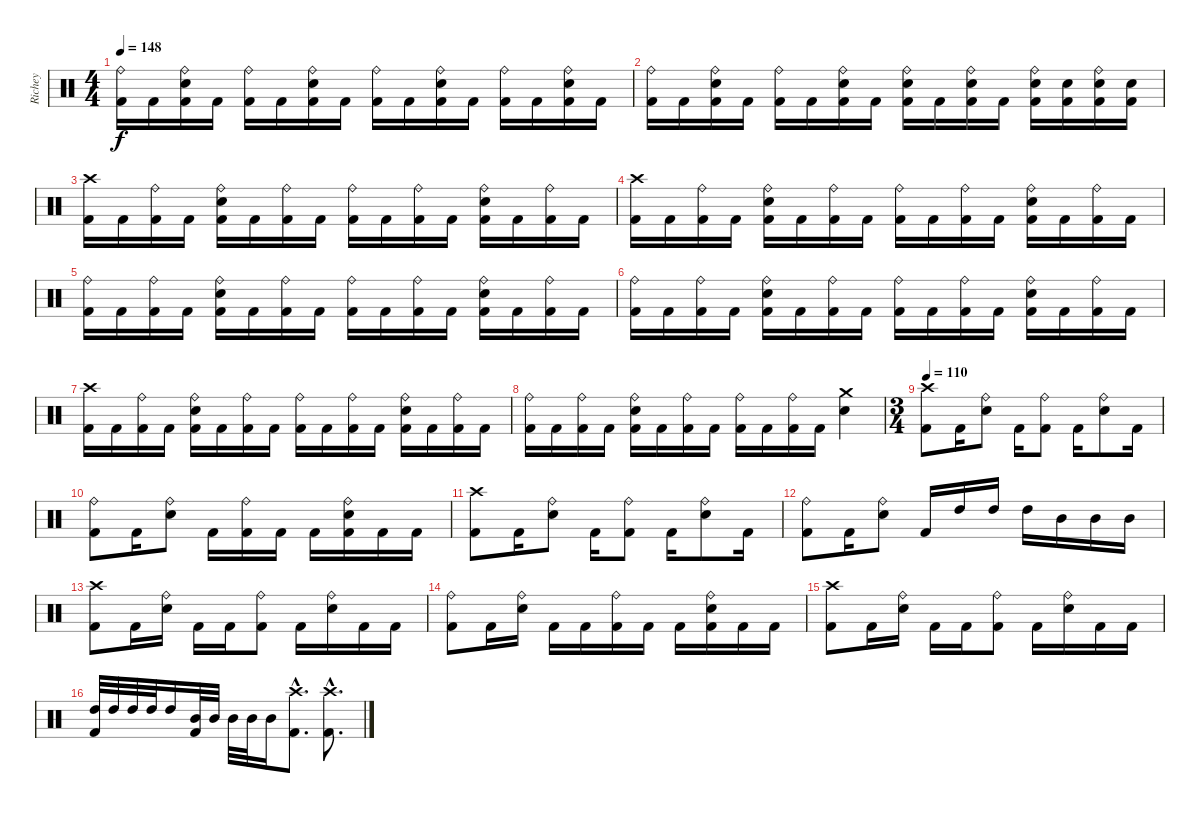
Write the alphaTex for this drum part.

\track ("Richey" "Richey") {instrument percussion}
\staff {score}
\articulation defaults
\ts (4 4)
\tempo 148
\clef neutral
\ks c
("Ride (bell)" "Kick (hit) 2").16{dy f} "Kick (hit) 2".16 ("Ride (bell)" "Snare (hit) 2" "Kick (hit) 2").16 "Kick (hit) 2".16 ("Ride (bell)" "Kick (hit) 2").16 "Kick (hit) 2".16 ("Ride (bell)" "Snare (hit) 2" "Kick (hit) 2").16 "Kick (hit) 2".16 ("Ride (bell)" "Kick (hit) 2").16 "Kick (hit) 2".16 ("Ride (bell)" "Snare (hit) 2" "Kick (hit) 2").16 "Kick (hit) 2".16 ("Ride (bell)" "Kick (hit) 2").16 "Kick (hit) 2".16 ("Ride (bell)" "Snare (hit) 2" "Kick (hit) 2").16 "Kick (hit) 2".16 |
("Ride (bell)" "Kick (hit) 2").16 "Kick (hit) 2".16 ("Ride (bell)" "Snare (hit) 2" "Kick (hit) 2").16 "Kick (hit) 2".16 ("Ride (bell)" "Kick (hit) 2").16 "Kick (hit) 2".16 ("Ride (bell)" "Snare (hit) 2" "Kick (hit) 2").16 "Kick (hit) 2".16 ("Ride (bell)" "Snare (hit) 2" "Kick (hit) 2").16 "Kick (hit) 2".16 ("Ride (bell)" "Snare (hit) 2" "Kick (hit) 2").16 "Kick (hit) 2".16 ("Ride (bell)" "Snare (hit) 2" "Kick (hit) 2").16 ("Snare (hit) 2" "Kick (hit) 2").16 ("Ride (bell)" "Snare (hit) 2" "Kick (hit) 2").16 ("Snare (hit) 2" "Kick (hit) 2").16 |
("Crash high (hit)" "Kick (hit) 2").16 "Kick (hit) 2".16 ("Ride (bell)" "Kick (hit) 2").16 "Kick (hit) 2".16 ("Ride (bell)" "Snare (hit) 2" "Kick (hit) 2").16 "Kick (hit) 2".16 ("Ride (bell)" "Kick (hit) 2").16 "Kick (hit) 2".16 ("Ride (bell)" "Kick (hit) 2").16 "Kick (hit) 2".16 ("Ride (bell)" "Kick (hit) 2").16 "Kick (hit) 2".16 ("Ride (bell)" "Snare (hit) 2" "Kick (hit) 2").16 "Kick (hit) 2".16 ("Ride (bell)" "Kick (hit) 2").16 "Kick (hit) 2".16 |
("Crash high (hit)" "Kick (hit) 2").16 "Kick (hit) 2".16 ("Ride (bell)" "Kick (hit) 2").16 "Kick (hit) 2".16 ("Ride (bell)" "Snare (hit) 2" "Kick (hit) 2").16 "Kick (hit) 2".16 ("Ride (bell)" "Kick (hit) 2").16 "Kick (hit) 2".16 ("Ride (bell)" "Kick (hit) 2").16 "Kick (hit) 2".16 ("Ride (bell)" "Kick (hit) 2").16 "Kick (hit) 2".16 ("Ride (bell)" "Snare (hit) 2" "Kick (hit) 2").16 "Kick (hit) 2".16 ("Ride (bell)" "Kick (hit) 2").16 "Kick (hit) 2".16 |
("Ride (bell)" "Kick (hit) 2").16 "Kick (hit) 2".16 ("Ride (bell)" "Kick (hit) 2").16 "Kick (hit) 2".16 ("Ride (bell)" "Snare (hit) 2" "Kick (hit) 2").16 "Kick (hit) 2".16 ("Ride (bell)" "Kick (hit) 2").16 "Kick (hit) 2".16 ("Ride (bell)" "Kick (hit) 2").16 "Kick (hit) 2".16 ("Ride (bell)" "Kick (hit) 2").16 "Kick (hit) 2".16 ("Ride (bell)" "Snare (hit) 2" "Kick (hit) 2").16 "Kick (hit) 2".16 ("Ride (bell)" "Kick (hit) 2").16 "Kick (hit) 2".16 |
("Ride (bell)" "Kick (hit) 2").16 "Kick (hit) 2".16 ("Ride (bell)" "Kick (hit) 2").16 "Kick (hit) 2".16 ("Ride (bell)" "Snare (hit) 2" "Kick (hit) 2").16 "Kick (hit) 2".16 ("Ride (bell)" "Kick (hit) 2").16 "Kick (hit) 2".16 ("Ride (bell)" "Kick (hit) 2").16 "Kick (hit) 2".16 ("Ride (bell)" "Kick (hit) 2").16 "Kick (hit) 2".16 ("Ride (bell)" "Snare (hit) 2" "Kick (hit) 2").16 "Kick (hit) 2".16 ("Ride (bell)" "Kick (hit) 2").16 "Kick (hit) 2".16 |
("Crash high (hit)" "Kick (hit) 2").16 "Kick (hit) 2".16 ("Ride (bell)" "Kick (hit) 2").16 "Kick (hit) 2".16 ("Ride (bell)" "Snare (hit) 2" "Kick (hit) 2").16 "Kick (hit) 2".16 ("Ride (bell)" "Kick (hit) 2").16 "Kick (hit) 2".16 ("Ride (bell)" "Kick (hit) 2").16 "Kick (hit) 2".16 ("Ride (bell)" "Kick (hit) 2").16 "Kick (hit) 2".16 ("Ride (bell)" "Snare (hit) 2" "Kick (hit) 2").16 "Kick (hit) 2".16 ("Ride (bell)" "Kick (hit) 2").16 "Kick (hit) 2".16 |
("Ride (bell)" "Kick (hit) 2").16 "Kick (hit) 2".16 ("Ride (bell)" "Kick (hit) 2").16 "Kick (hit) 2".16 ("Ride (bell)" "Snare (hit) 2" "Kick (hit) 2").16 "Kick (hit) 2".16 ("Ride (bell)" "Kick (hit) 2").16 "Kick (hit) 2".16 ("Ride (bell)" "Kick (hit) 2").16 "Kick (hit) 2".16 ("Ride (bell)" "Kick (hit) 2").16 "Kick (hit) 2".16 ("Crash medium (hit)" "Snare (hit) 2").4 |
\ts (3 4)
\tempo 110
("Crash high (hit)" "Kick (hit) 2").8 "Kick (hit) 2".16 ("Ride (bell)" "Snare (hit) 2").8 "Kick (hit) 2".16 ("Ride (bell)" "Kick (hit) 2").8 "Kick (hit) 2".16 ("Ride (bell)" "Snare (hit) 2").8 "Kick (hit) 2".16 |
("Ride (bell)" "Kick (hit) 2").8 "Kick (hit) 2".16 ("Ride (bell)" "Snare (hit) 2").8 "Kick (hit) 2".16 ("Ride (bell)" "Kick (hit) 2").16 "Kick (hit) 2".16 "Kick (hit) 2".16 ("Ride (bell)" "Snare (hit) 2" "Kick (hit) 2").16 "Kick (hit) 2".16 "Kick (hit) 2".16 |
("Crash high (hit)" "Kick (hit) 2").8 "Kick (hit) 2".16 ("Ride (bell)" "Snare (hit) 2").8 "Kick (hit) 2".16 ("Ride (bell)" "Kick (hit) 2").8 "Kick (hit) 2".16 ("Ride (bell)" "Snare (hit) 2").8 "Kick (hit) 2".16 |
("Ride (bell)" "Kick (hit) 2").8 "Kick (hit) 2".16 ("Ride (bell)" "Snare (hit) 2").8 "Kick (hit) 2".16 "High Tom (hit)".16 "High Tom (hit)".16 "High Tom (hit)".16 "Mid Tom (hit)".16 "Mid Tom (hit)".16 "Mid Tom (hit)".16 |
("Crash high (hit)" "Kick (hit) 2").8 "Kick (hit) 2".16 ("Ride (bell)" "Snare (hit) 2").16 "Kick (hit) 2".16 "Kick (hit) 2".16 ("Ride (bell)" "Kick (hit) 2").8 "Kick (hit) 2".16 ("Ride (bell)" "Snare (hit) 2").16 "Kick (hit) 2".16 "Kick (hit) 2".16 |
("Ride (bell)" "Kick (hit) 2").8 "Kick (hit) 2".16 ("Ride (bell)" "Snare (hit) 2").16 "Kick (hit) 2".16 "Kick (hit) 2".16 ("Ride (bell)" "Kick (hit) 2").16 "Kick (hit) 2".16 "Kick (hit) 2".16 ("Ride (bell)" "Snare (hit) 2" "Kick (hit) 2").16 "Kick (hit) 2".16 "Kick (hit) 2".16 |
("Crash high (hit)" "Kick (hit) 2").8 "Kick (hit) 2".16 ("Ride (bell)" "Snare (hit) 2").16 "Kick (hit) 2".16 "Kick (hit) 2".16 ("Ride (bell)" "Kick (hit) 2").8 "Kick (hit) 2".16 ("Ride (bell)" "Snare (hit) 2").16 "Kick (hit) 2".16 "Kick (hit) 2".16 |
("High Tom (hit)" "Kick (hit) 2").32 "High Tom (hit)".32 "High Tom (hit)".32 "High Tom (hit)".32 "High Tom (hit)".16 ("Mid Tom (hit)" "Kick (hit) 2").32 "Mid Tom (hit)".32 "Mid Tom (hit)".32 "Mid Tom (hit)".32 "Mid Tom (hit)".16 ("Crash high (hit)"{hac} "Kick (hit) 2"{hac}).8{d} ("Crash high (hit)"{hac} "Kick (hit) 2"{hac}).8{d}
